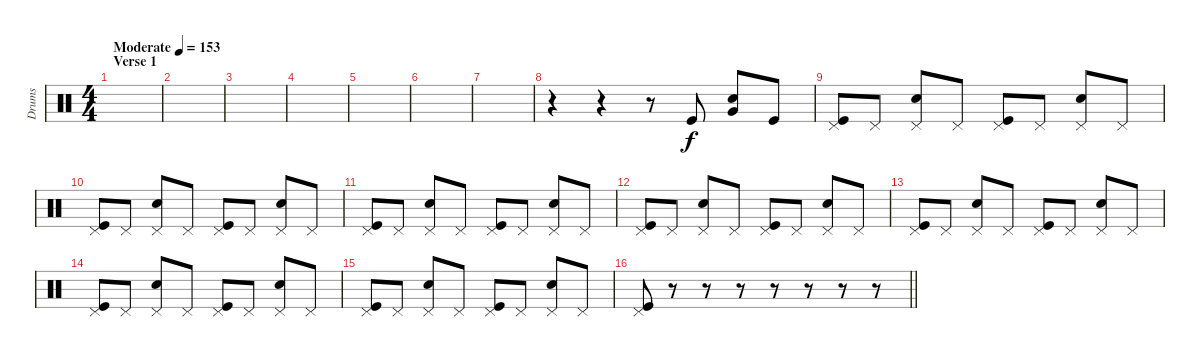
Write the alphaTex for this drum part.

\track ("Drums" "Drums") {instrument percussion}
\staff {score}
\articulation defaults
\ts (4 4)
\section ("" "Verse 1")
\tempo (153 "Moderate")
\clef neutral
\ks c
|
|
|
|
|
|
|
r.4 r.4 r.8 "Kick (hit)".8 ("Snare (hit) 2" "Very Low Tom (hit)").8 "Kick (hit)".8 |
("Pedal Hi-Hat (hit)" "Kick (hit)").8 "Pedal Hi-Hat (hit)".8 ("Pedal Hi-Hat (hit)" "Snare (hit) 2").8 "Pedal Hi-Hat (hit)".8 ("Pedal Hi-Hat (hit)" "Kick (hit)").8 "Pedal Hi-Hat (hit)".8 ("Pedal Hi-Hat (hit)" "Snare (hit) 2").8 "Pedal Hi-Hat (hit)".8 |
("Pedal Hi-Hat (hit)" "Kick (hit)").8 "Pedal Hi-Hat (hit)".8 ("Pedal Hi-Hat (hit)" "Snare (hit) 2").8 "Pedal Hi-Hat (hit)".8 ("Pedal Hi-Hat (hit)" "Kick (hit)").8 "Pedal Hi-Hat (hit)".8 ("Pedal Hi-Hat (hit)" "Snare (hit) 2").8 "Pedal Hi-Hat (hit)".8 |
("Pedal Hi-Hat (hit)" "Kick (hit)").8 "Pedal Hi-Hat (hit)".8 ("Pedal Hi-Hat (hit)" "Snare (hit) 2").8 "Pedal Hi-Hat (hit)".8 ("Pedal Hi-Hat (hit)" "Kick (hit)").8 "Pedal Hi-Hat (hit)".8 ("Pedal Hi-Hat (hit)" "Snare (hit) 2").8 "Pedal Hi-Hat (hit)".8 |
("Pedal Hi-Hat (hit)" "Kick (hit)").8 "Pedal Hi-Hat (hit)".8 ("Pedal Hi-Hat (hit)" "Snare (hit) 2").8 "Pedal Hi-Hat (hit)".8 ("Pedal Hi-Hat (hit)" "Kick (hit)").8 "Pedal Hi-Hat (hit)".8 ("Pedal Hi-Hat (hit)" "Snare (hit) 2").8 "Pedal Hi-Hat (hit)".8 |
("Pedal Hi-Hat (hit)" "Kick (hit)").8 "Pedal Hi-Hat (hit)".8 ("Pedal Hi-Hat (hit)" "Snare (hit) 2").8 "Pedal Hi-Hat (hit)".8 ("Pedal Hi-Hat (hit)" "Kick (hit)").8 "Pedal Hi-Hat (hit)".8 ("Pedal Hi-Hat (hit)" "Snare (hit) 2").8 "Pedal Hi-Hat (hit)".8 |
("Pedal Hi-Hat (hit)" "Kick (hit)").8 "Pedal Hi-Hat (hit)".8 ("Pedal Hi-Hat (hit)" "Snare (hit) 2").8 "Pedal Hi-Hat (hit)".8 ("Pedal Hi-Hat (hit)" "Kick (hit)").8 "Pedal Hi-Hat (hit)".8 ("Pedal Hi-Hat (hit)" "Snare (hit) 2").8 "Pedal Hi-Hat (hit)".8 |
("Pedal Hi-Hat (hit)" "Kick (hit)").8 "Pedal Hi-Hat (hit)".8 ("Pedal Hi-Hat (hit)" "Snare (hit) 2").8 "Pedal Hi-Hat (hit)".8 ("Pedal Hi-Hat (hit)" "Kick (hit)").8 "Pedal Hi-Hat (hit)".8 ("Pedal Hi-Hat (hit)" "Snare (hit) 2").8 "Pedal Hi-Hat (hit)".8 |
\barLineRight lightlight
("Pedal Hi-Hat (hit)" "Kick (hit)").8 r.8 r.8 r.8 r.8 r.8 r.8 r.8
